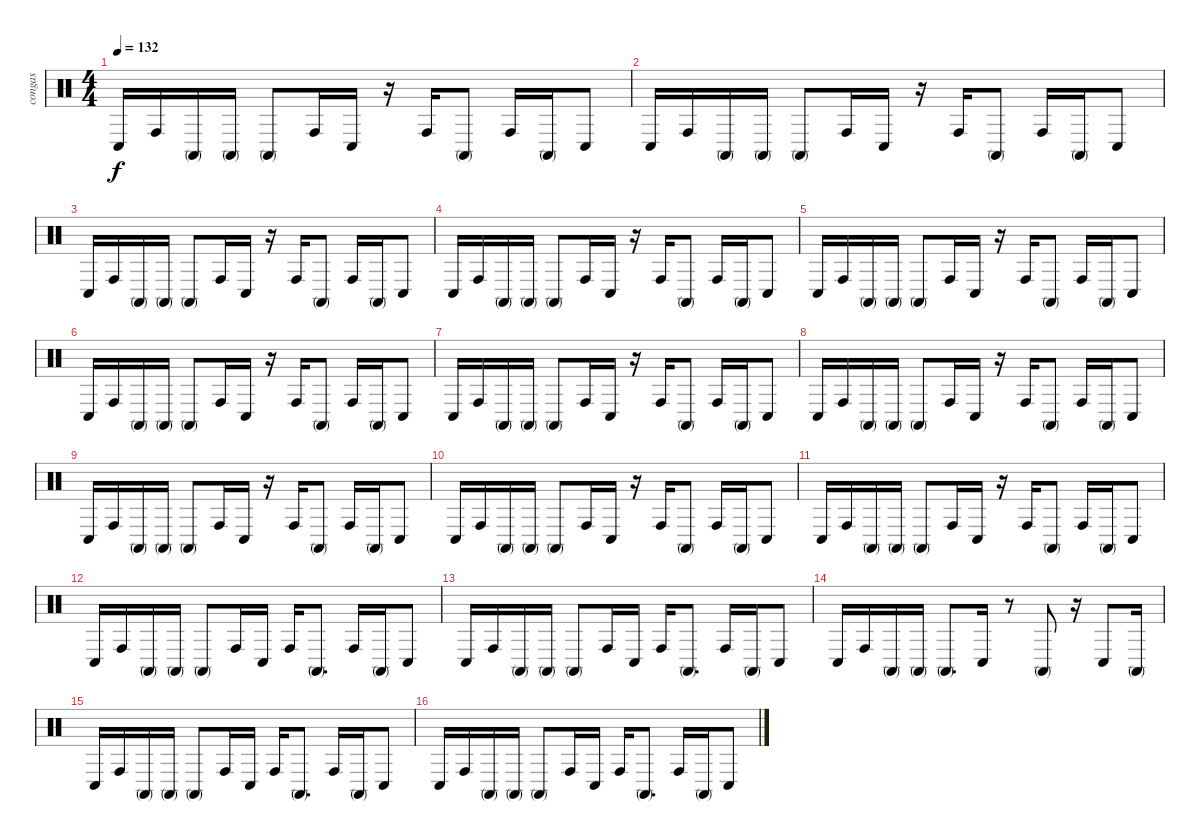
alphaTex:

\track ("congas" "congas") {instrument percussion}
\staff {score}
\articulation defaults
\ts (4 4)
\tempo 132
\clef neutral
\ks c "Conga low (hit)".16{dy f} "Conga high (hit)".16 "Conga high (mute)".16 "Conga high (mute)".16 "Conga high (mute)".8 "Conga high (hit)".16 "Conga low (hit)".16
r.16 "Conga high (hit)".16 "Conga high (mute)".8 "Conga high (hit)".16 "Conga high (mute)".16 "Conga low (hit)".8 |
"Conga low (hit)".16 "Conga high (hit)".16 "Conga high (mute)".16 "Conga high (mute)".16 "Conga high (mute)".8 "Conga high (hit)".16 "Conga low (hit)".16 r.16 "Conga high (hit)".16 "Conga high (mute)".8 "Conga high (hit)".16 "Conga high (mute)".16 "Conga low (hit)".8 |
"Conga low (hit)".16 "Conga high (hit)".16 "Conga high (mute)".16 "Conga high (mute)".16 "Conga high (mute)".8 "Conga high (hit)".16 "Conga low (hit)".16 r.16 "Conga high (hit)".16 "Conga high (mute)".8 "Conga high (hit)".16 "Conga high (mute)".16 "Conga low (hit)".8 |
"Conga low (hit)".16 "Conga high (hit)".16 "Conga high (mute)".16 "Conga high (mute)".16 "Conga high (mute)".8 "Conga high (hit)".16 "Conga low (hit)".16 r.16 "Conga high (hit)".16 "Conga high (mute)".8 "Conga high (hit)".16 "Conga high (mute)".16 "Conga low (hit)".8 |
"Conga low (hit)".16 "Conga high (hit)".16 "Conga high (mute)".16 "Conga high (mute)".16 "Conga high (mute)".8 "Conga high (hit)".16 "Conga low (hit)".16 r.16 "Conga high (hit)".16 "Conga high (mute)".8 "Conga high (hit)".16 "Conga high (mute)".16 "Conga low (hit)".8 |
"Conga low (hit)".16 "Conga high (hit)".16 "Conga high (mute)".16 "Conga high (mute)".16 "Conga high (mute)".8 "Conga high (hit)".16 "Conga low (hit)".16 r.16 "Conga high (hit)".16 "Conga high (mute)".8 "Conga high (hit)".16 "Conga high (mute)".16 "Conga low (hit)".8 |
"Conga low (hit)".16 "Conga high (hit)".16 "Conga high (mute)".16 "Conga high (mute)".16 "Conga high (mute)".8 "Conga high (hit)".16 "Conga low (hit)".16 r.16 "Conga high (hit)".16 "Conga high (mute)".8 "Conga high (hit)".16 "Conga high (mute)".16 "Conga low (hit)".8 |
"Conga low (hit)".16 "Conga high (hit)".16 "Conga high (mute)".16 "Conga high (mute)".16 "Conga high (mute)".8 "Conga high (hit)".16 "Conga low (hit)".16 r.16 "Conga high (hit)".16 "Conga high (mute)".8 "Conga high (hit)".16 "Conga high (mute)".16 "Conga low (hit)".8 |
"Conga low (hit)".16 "Conga high (hit)".16 "Conga high (mute)".16 "Conga high (mute)".16 "Conga high (mute)".8 "Conga high (hit)".16 "Conga low (hit)".16 r.16 "Conga high (hit)".16 "Conga high (mute)".8 "Conga high (hit)".16 "Conga high (mute)".16 "Conga low (hit)".8 |
"Conga low (hit)".16 "Conga high (hit)".16 "Conga high (mute)".16 "Conga high (mute)".16 "Conga high (mute)".8 "Conga high (hit)".16 "Conga low (hit)".16 r.16 "Conga high (hit)".16 "Conga high (mute)".8 "Conga high (hit)".16 "Conga high (mute)".16 "Conga low (hit)".8 |
"Conga low (hit)".16 "Conga high (hit)".16 "Conga high (mute)".16 "Conga high (mute)".16 "Conga high (mute)".8 "Conga high (hit)".16 "Conga low (hit)".16 r.16 "Conga high (hit)".16 "Conga high (mute)".8 "Conga high (hit)".16 "Conga high (mute)".16 "Conga low (hit)".8 |
"Conga low (hit)".16 "Conga high (hit)".16 "Conga high (mute)".16 "Conga high (mute)".16 "Conga high (mute)".8 "Conga high (hit)".16 "Conga low (hit)".16 "Conga high (hit)".16 "Conga high (mute)".8{d} "Conga high (hit)".16 "Conga high (mute)".16 "Conga low (hit)".8 |
"Conga low (hit)".16 "Conga high (hit)".16 "Conga high (mute)".16 "Conga high (mute)".16 "Conga high (mute)".8 "Conga high (hit)".16 "Conga low (hit)".16 "Conga high (hit)".16 "Conga high (mute)".8{d} "Conga high (hit)".16 "Conga high (mute)".16 "Conga low (hit)".8 |
"Conga low (hit)".16 "Conga high (hit)".16 "Conga high (mute)".16 "Conga high (mute)".16 "Conga high (mute)".8{d} "Conga low (hit)".16 r.8 "Conga high (mute)".8 r.16 "Conga low (hit)".8 "Conga high (mute)".16 |
"Conga low (hit)".16 "Conga high (hit)".16 "Conga high (mute)".16 "Conga high (mute)".16 "Conga high (mute)".8 "Conga high (hit)".16 "Conga low (hit)".16 "Conga high (hit)".16 "Conga high (mute)".8{d} "Conga high (hit)".16 "Conga high (mute)".16 "Conga low (hit)".8 |
"Conga low (hit)".16 "Conga high (hit)".16 "Conga high (mute)".16 "Conga high (mute)".16 "Conga high (mute)".8 "Conga high (hit)".16 "Conga low (hit)".16 "Conga high (hit)".16 "Conga high (mute)".8{d} "Conga high (hit)".16 "Conga high (mute)".16 "Conga low (hit)".8
